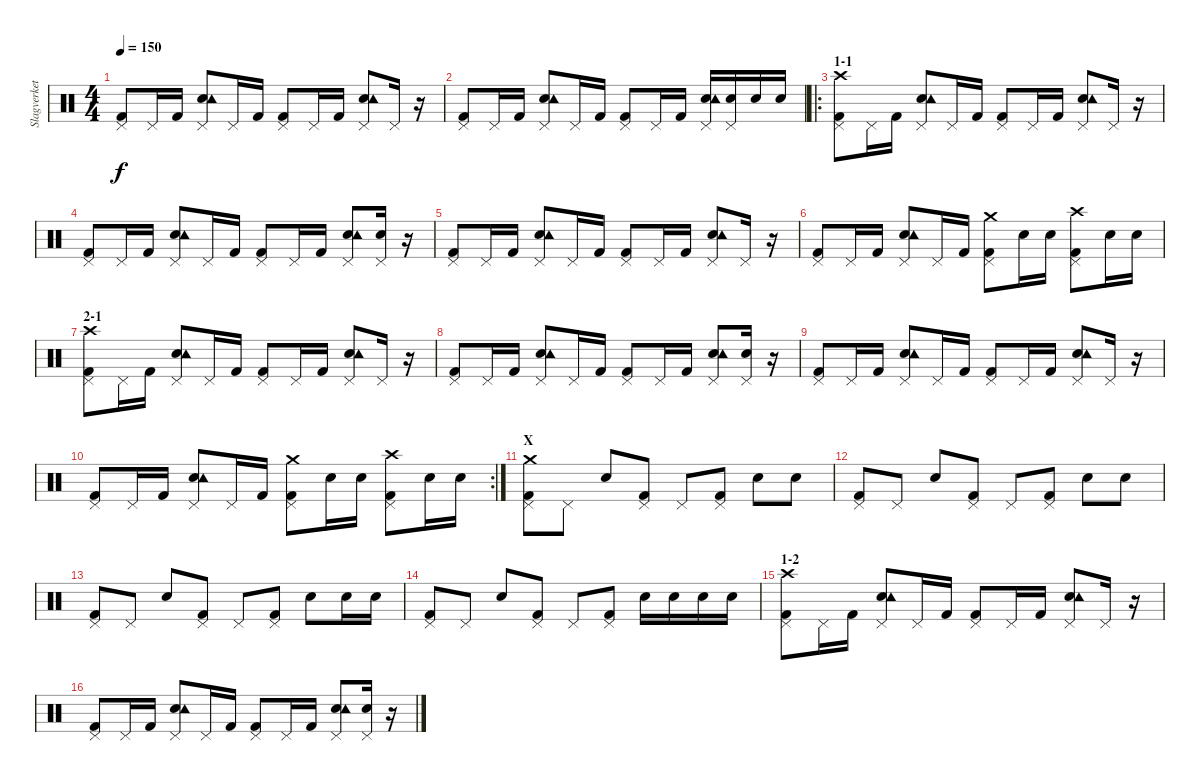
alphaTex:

\track ("Slagverket!" "Slagverket") {instrument percussion}
\staff {score}
\articulation defaults
\ts (4 4)
\tempo 150
\clef neutral
\ks c
("Kick (hit) 2" "Pedal Hi-Hat (hit)").8{dy f} "Pedal Hi-Hat (hit)".16 "Kick (hit) 2".16 ("Snare (hit) 2" "Tambourine (hit)" "Pedal Hi-Hat (hit)").8 "Pedal Hi-Hat (hit)".16 "Kick (hit) 2".16 ("Kick (hit) 2" "Pedal Hi-Hat (hit)").8 "Pedal Hi-Hat (hit)".16 "Kick (hit) 2".16 ("Snare (hit) 2" "Tambourine (hit)" "Pedal Hi-Hat (hit)").8 "Pedal Hi-Hat (hit)".16 r.16 |
("Kick (hit) 2" "Pedal Hi-Hat (hit)").8 "Pedal Hi-Hat (hit)".16 "Kick (hit) 2".16 ("Snare (hit) 2" "Tambourine (hit)" "Pedal Hi-Hat (hit)").8 "Pedal Hi-Hat (hit)".16 "Kick (hit) 2".16 ("Kick (hit) 2" "Pedal Hi-Hat (hit)").8 "Pedal Hi-Hat (hit)".16 "Kick (hit) 2".16 ("Snare (hit) 2" "Tambourine (hit)" "Pedal Hi-Hat (hit)").16 ("Snare (hit) 2" "Pedal Hi-Hat (hit)").16 "Snare (hit) 2".16 "Snare (hit) 2".16 |
\ro
\section ("" "1-1")
("Kick (hit) 2" "Crash high (hit)" "Pedal Hi-Hat (hit)").8 "Pedal Hi-Hat (hit)".16 "Kick (hit) 2".16 ("Snare (hit) 2" "Tambourine (hit)" "Pedal Hi-Hat (hit)").8 "Pedal Hi-Hat (hit)".16 "Kick (hit) 2".16 ("Kick (hit) 2" "Pedal Hi-Hat (hit)").8 "Pedal Hi-Hat (hit)".16 "Kick (hit) 2".16 ("Snare (hit) 2" "Tambourine (hit)" "Pedal Hi-Hat (hit)").8 "Pedal Hi-Hat (hit)".16 r.16 |
("Kick (hit) 2" "Pedal Hi-Hat (hit)").8 "Pedal Hi-Hat (hit)".16 "Kick (hit) 2".16 ("Snare (hit) 2" "Tambourine (hit)" "Pedal Hi-Hat (hit)").8 "Pedal Hi-Hat (hit)".16 "Kick (hit) 2".16 ("Kick (hit) 2" "Pedal Hi-Hat (hit)").8 "Pedal Hi-Hat (hit)".16 "Kick (hit) 2".16 ("Snare (hit) 2" "Tambourine (hit)" "Pedal Hi-Hat (hit)").8 ("Snare (hit) 2" "Pedal Hi-Hat (hit)").16 r.16 |
("Kick (hit) 2" "Pedal Hi-Hat (hit)").8 "Pedal Hi-Hat (hit)".16 "Kick (hit) 2".16 ("Snare (hit) 2" "Tambourine (hit)" "Pedal Hi-Hat (hit)").8 "Pedal Hi-Hat (hit)".16 "Kick (hit) 2".16 ("Kick (hit) 2" "Pedal Hi-Hat (hit)").8 "Pedal Hi-Hat (hit)".16 "Kick (hit) 2".16 ("Snare (hit) 2" "Tambourine (hit)" "Pedal Hi-Hat (hit)").8 "Pedal Hi-Hat (hit)".16 r.16 |
("Kick (hit) 2" "Pedal Hi-Hat (hit)").8 "Pedal Hi-Hat (hit)".16 "Kick (hit) 2".16 ("Snare (hit) 2" "Tambourine (hit)" "Pedal Hi-Hat (hit)").8 "Pedal Hi-Hat (hit)".16 "Kick (hit) 2".16 ("Kick (hit) 2" "Crash medium (hit)" "Pedal Hi-Hat (hit)").8 "Snare (hit) 2".16 "Snare (hit) 2".16 ("Kick (hit) 2" "Crash high (hit)" "Pedal Hi-Hat (hit)").8 "Snare (hit) 2".16 "Snare (hit) 2".16 |
\section ("" "2-1")
("Kick (hit) 2" "Crash high (hit)" "Pedal Hi-Hat (hit)").8 "Pedal Hi-Hat (hit)".16 "Kick (hit) 2".16 ("Snare (hit) 2" "Tambourine (hit)" "Pedal Hi-Hat (hit)").8 "Pedal Hi-Hat (hit)".16 "Kick (hit) 2".16 ("Kick (hit) 2" "Pedal Hi-Hat (hit)").8 "Pedal Hi-Hat (hit)".16 "Kick (hit) 2".16 ("Snare (hit) 2" "Tambourine (hit)" "Pedal Hi-Hat (hit)").8 "Pedal Hi-Hat (hit)".16 r.16 |
("Kick (hit) 2" "Pedal Hi-Hat (hit)").8 "Pedal Hi-Hat (hit)".16 "Kick (hit) 2".16 ("Snare (hit) 2" "Tambourine (hit)" "Pedal Hi-Hat (hit)").8 "Pedal Hi-Hat (hit)".16 "Kick (hit) 2".16 ("Kick (hit) 2" "Pedal Hi-Hat (hit)").8 "Pedal Hi-Hat (hit)".16 "Kick (hit) 2".16 ("Snare (hit) 2" "Tambourine (hit)" "Pedal Hi-Hat (hit)").8 ("Snare (hit) 2" "Pedal Hi-Hat (hit)").16 r.16 |
("Kick (hit) 2" "Pedal Hi-Hat (hit)").8 "Pedal Hi-Hat (hit)".16 "Kick (hit) 2".16 ("Snare (hit) 2" "Tambourine (hit)" "Pedal Hi-Hat (hit)").8 "Pedal Hi-Hat (hit)".16 "Kick (hit) 2".16 ("Kick (hit) 2" "Pedal Hi-Hat (hit)").8 "Pedal Hi-Hat (hit)".16 "Kick (hit) 2".16 ("Snare (hit) 2" "Tambourine (hit)" "Pedal Hi-Hat (hit)").8 "Pedal Hi-Hat (hit)".16 r.16 |
\rc 2
("Kick (hit) 2" "Pedal Hi-Hat (hit)").8 "Pedal Hi-Hat (hit)".16 "Kick (hit) 2".16 ("Snare (hit) 2" "Tambourine (hit)" "Pedal Hi-Hat (hit)").8 "Pedal Hi-Hat (hit)".16 "Kick (hit) 2".16 ("Kick (hit) 2" "Crash medium (hit)" "Pedal Hi-Hat (hit)").8 "Snare (hit) 2".16 "Snare (hit) 2".16 ("Kick (hit) 2" "Crash high (hit)" "Pedal Hi-Hat (hit)").8 "Snare (hit) 2".16 "Snare (hit) 2".16 |
\section ("" "X")
("Crash medium (hit)" "Kick (hit) 2" "Pedal Hi-Hat (hit)").8 "Pedal Hi-Hat (hit)".8 "Snare (hit) 2".8 ("Kick (hit) 2" "Pedal Hi-Hat (hit)").8 "Pedal Hi-Hat (hit)".8 ("Kick (hit) 2" "Pedal Hi-Hat (hit)").8 "Snare (hit) 2".8 "Snare (hit) 2".8 |
("Kick (hit) 2" "Pedal Hi-Hat (hit)").8 "Pedal Hi-Hat (hit)".8 "Snare (hit) 2".8 ("Kick (hit) 2" "Pedal Hi-Hat (hit)").8 "Pedal Hi-Hat (hit)".8 ("Kick (hit) 2" "Pedal Hi-Hat (hit)").8 "Snare (hit) 2".8 "Snare (hit) 2".8 |
("Kick (hit) 2" "Pedal Hi-Hat (hit)").8 "Pedal Hi-Hat (hit)".8 "Snare (hit) 2".8 ("Kick (hit) 2" "Pedal Hi-Hat (hit)").8 "Pedal Hi-Hat (hit)".8 ("Kick (hit) 2" "Pedal Hi-Hat (hit)").8 "Snare (hit) 2".8 "Snare (hit) 2".16 "Snare (hit) 2".16 |
("Kick (hit) 2" "Pedal Hi-Hat (hit)").8 "Pedal Hi-Hat (hit)".8 "Snare (hit) 2".8 ("Kick (hit) 2" "Pedal Hi-Hat (hit)").8 "Pedal Hi-Hat (hit)".8 ("Kick (hit) 2" "Pedal Hi-Hat (hit)").8 "Snare (hit) 2".16 "Snare (hit) 2".16 "Snare (hit) 2".16 "Snare (hit) 2".16 |
\section ("" "1-2")
("Kick (hit) 2" "Crash high (hit)" "Pedal Hi-Hat (hit)").8 "Pedal Hi-Hat (hit)".16 "Kick (hit) 2".16 ("Snare (hit) 2" "Tambourine (hit)" "Pedal Hi-Hat (hit)").8 "Pedal Hi-Hat (hit)".16 "Kick (hit) 2".16 ("Kick (hit) 2" "Pedal Hi-Hat (hit)").8 "Pedal Hi-Hat (hit)".16 "Kick (hit) 2".16 ("Snare (hit) 2" "Tambourine (hit)" "Pedal Hi-Hat (hit)").8 "Pedal Hi-Hat (hit)".16 r.16 |
("Kick (hit) 2" "Pedal Hi-Hat (hit)").8 "Pedal Hi-Hat (hit)".16 "Kick (hit) 2".16 ("Snare (hit) 2" "Tambourine (hit)" "Pedal Hi-Hat (hit)").8 "Pedal Hi-Hat (hit)".16 "Kick (hit) 2".16 ("Kick (hit) 2" "Pedal Hi-Hat (hit)").8 "Pedal Hi-Hat (hit)".16 "Kick (hit) 2".16 ("Snare (hit) 2" "Tambourine (hit)" "Pedal Hi-Hat (hit)").8 ("Snare (hit) 2" "Pedal Hi-Hat (hit)").16 r.16
